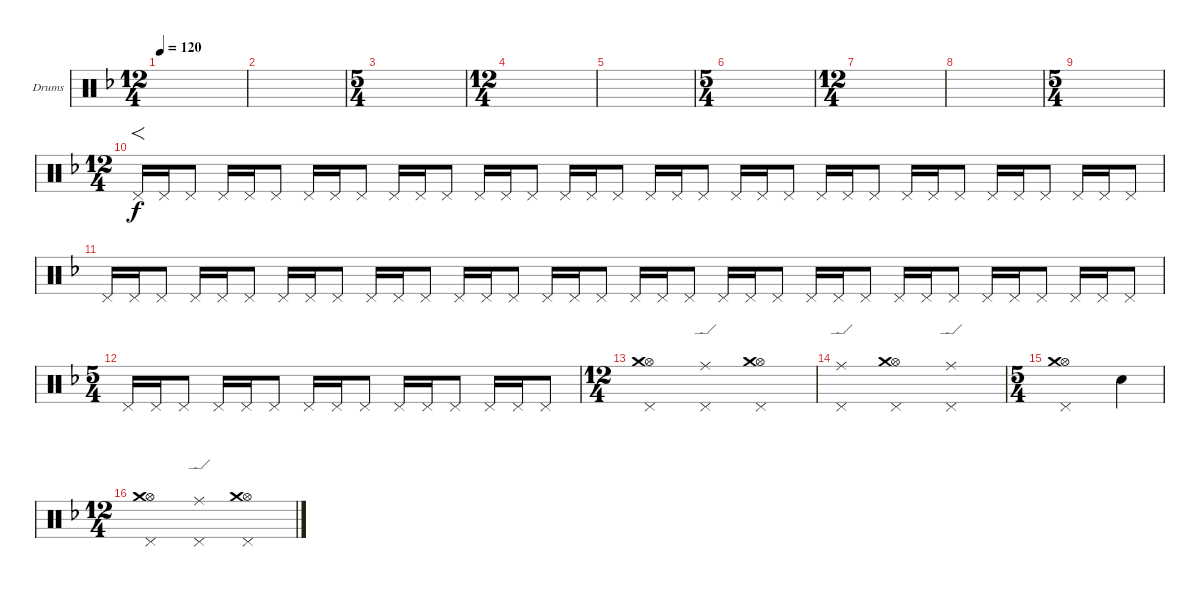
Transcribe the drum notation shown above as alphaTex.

\defaultSystemsLayout 4
\bracketExtendMode groupsimilarinstruments
\firstSystemTrackNameOrientation horizontal
\otherSystemsTrackNameOrientation horizontal
\track ("Drumkit" "Drums") {instrument percussion}
\staff {score}
\articulation defaults
\ts (12 4)
\tempo 120
\clef neutral
\ks f
|
|
\ts (5 4)
|
\ts (12 4)
|
|
\ts (5 4)
|
\ts (12 4)
|
|
\ts (5 4)
|
\ts (12 4)
"Pedal Hi-Hat (hit)".16{f} "Pedal Hi-Hat (hit)".16 "Pedal Hi-Hat (hit)".8 "Pedal Hi-Hat (hit)".16 "Pedal Hi-Hat (hit)".16 "Pedal Hi-Hat (hit)".8 "Pedal Hi-Hat (hit)".16 "Pedal Hi-Hat (hit)".16 "Pedal Hi-Hat (hit)".8 "Pedal Hi-Hat (hit)".16 "Pedal Hi-Hat (hit)".16 "Pedal Hi-Hat (hit)".8 "Pedal Hi-Hat (hit)".16 "Pedal Hi-Hat (hit)".16 "Pedal Hi-Hat (hit)".8 "Pedal Hi-Hat (hit)".16 "Pedal Hi-Hat (hit)".16 "Pedal Hi-Hat (hit)".8 "Pedal Hi-Hat (hit)".16 "Pedal Hi-Hat (hit)".16 "Pedal Hi-Hat (hit)".8 "Pedal Hi-Hat (hit)".16 "Pedal Hi-Hat (hit)".16 "Pedal Hi-Hat (hit)".8 "Pedal Hi-Hat (hit)".16 "Pedal Hi-Hat (hit)".16 "Pedal Hi-Hat (hit)".8 "Pedal Hi-Hat (hit)".16 "Pedal Hi-Hat (hit)".16 "Pedal Hi-Hat (hit)".8 "Pedal Hi-Hat (hit)".16 "Pedal Hi-Hat (hit)".16 "Pedal Hi-Hat (hit)".8 "Pedal Hi-Hat (hit)".16 "Pedal Hi-Hat (hit)".16 "Pedal Hi-Hat (hit)".8 |
"Pedal Hi-Hat (hit)".16 "Pedal Hi-Hat (hit)".16 "Pedal Hi-Hat (hit)".8 "Pedal Hi-Hat (hit)".16 "Pedal Hi-Hat (hit)".16 "Pedal Hi-Hat (hit)".8 "Pedal Hi-Hat (hit)".16 "Pedal Hi-Hat (hit)".16 "Pedal Hi-Hat (hit)".8 "Pedal Hi-Hat (hit)".16 "Pedal Hi-Hat (hit)".16 "Pedal Hi-Hat (hit)".8 "Pedal Hi-Hat (hit)".16 "Pedal Hi-Hat (hit)".16 "Pedal Hi-Hat (hit)".8 "Pedal Hi-Hat (hit)".16 "Pedal Hi-Hat (hit)".16 "Pedal Hi-Hat (hit)".8 "Pedal Hi-Hat (hit)".16 "Pedal Hi-Hat (hit)".16 "Pedal Hi-Hat (hit)".8 "Pedal Hi-Hat (hit)".16 "Pedal Hi-Hat (hit)".16 "Pedal Hi-Hat (hit)".8 "Pedal Hi-Hat (hit)".16 "Pedal Hi-Hat (hit)".16 "Pedal Hi-Hat (hit)".8 "Pedal Hi-Hat (hit)".16 "Pedal Hi-Hat (hit)".16 "Pedal Hi-Hat (hit)".8 "Pedal Hi-Hat (hit)".16 "Pedal Hi-Hat (hit)".16 "Pedal Hi-Hat (hit)".8 "Pedal Hi-Hat (hit)".16 "Pedal Hi-Hat (hit)".16 "Pedal Hi-Hat (hit)".8 |
\ts (5 4)
"Pedal Hi-Hat (hit)".16 "Pedal Hi-Hat (hit)".16 "Pedal Hi-Hat (hit)".8 "Pedal Hi-Hat (hit)".16 "Pedal Hi-Hat (hit)".16 "Pedal Hi-Hat (hit)".8 "Pedal Hi-Hat (hit)".16 "Pedal Hi-Hat (hit)".16 "Pedal Hi-Hat (hit)".8 "Pedal Hi-Hat (hit)".16 "Pedal Hi-Hat (hit)".16 "Pedal Hi-Hat (hit)".8 "Pedal Hi-Hat (hit)".16 "Pedal Hi-Hat (hit)".16 "Pedal Hi-Hat (hit)".8 |
\ts (12 4)
("Hi-Hat (open)" "Crash medium (hit)" "Pedal Hi-Hat (hit)").1 ("Ride (edge)" "Pedal Hi-Hat (hit)").1 ("Hi-Hat (open)" "Crash medium (hit)" "Pedal Hi-Hat (hit)").1 |
("Ride (edge)" "Pedal Hi-Hat (hit)").1 ("Hi-Hat (open)" "Crash medium (hit)" "Pedal Hi-Hat (hit)").1 ("Ride (edge)" "Pedal Hi-Hat (hit)").1 |
\ts (5 4)
("Hi-Hat (open)" "Crash medium (hit)" "Pedal Hi-Hat (hit)").1 "Snare (hit) 2".4 |
\ts (12 4)
("Hi-Hat (open)" "Crash medium (hit)" "Pedal Hi-Hat (hit)").1 ("Ride (edge)" "Pedal Hi-Hat (hit)").1 ("Hi-Hat (open)" "Crash medium (hit)" "Pedal Hi-Hat (hit)").1
